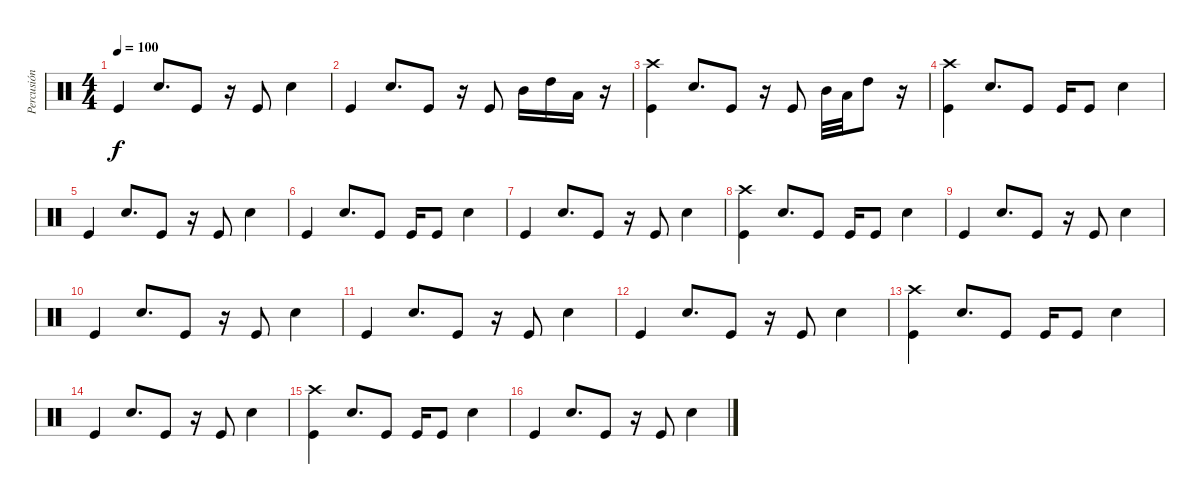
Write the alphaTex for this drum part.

\track ("Percusión" "Percusión") {instrument percussion}
\staff {score}
\articulation defaults
\ts (4 4)
\tempo 100
\clef neutral
\ks c "Kick (hit)".4{dy f} "Snare (hit) 2".8{d} "Kick (hit)".8
r.16 "Kick (hit)".8 "Snare (hit) 2".4 |
"Kick (hit)".4 "Snare (hit) 2".8{d} "Kick (hit)".8 r.16 "Kick (hit)".8 "Mid Tom (hit)".16 "High Tom (hit)".16 "Low Floor Tom (hit)".16 r.16 |
("Kick (hit)" "Crash high (hit)").4 "Snare (hit) 2".8{d} "Kick (hit)".8 r.16 "Kick (hit)".8 "Mid Tom (hit)".32 "Low Tom (hit)".32 "High Tom (hit)".8 r.16 |
("Crash high (hit)" "Kick (hit)").4 "Snare (hit) 2".8{d} "Kick (hit)".8 "Kick (hit)".16 "Kick (hit)".8 "Snare (hit) 2".4 |
"Kick (hit)".4 "Snare (hit) 2".8{d} "Kick (hit)".8 r.16 "Kick (hit)".8 "Snare (hit) 2".4 |
"Kick (hit)".4 "Snare (hit) 2".8{d} "Kick (hit)".8 "Kick (hit)".16 "Kick (hit)".8 "Snare (hit) 2".4 |
"Kick (hit)".4 "Snare (hit) 2".8{d} "Kick (hit)".8 r.16 "Kick (hit)".8 "Snare (hit) 2".4 |
("Crash high (hit)" "Kick (hit)").4 "Snare (hit) 2".8{d} "Kick (hit)".8 "Kick (hit)".16 "Kick (hit)".8 "Snare (hit) 2".4 |
"Kick (hit)".4 "Snare (hit) 2".8{d} "Kick (hit)".8 r.16 "Kick (hit)".8 "Snare (hit) 2".4 |
"Kick (hit)".4 "Snare (hit) 2".8{d} "Kick (hit)".8 r.16 "Kick (hit)".8 "Snare (hit) 2".4 |
"Kick (hit)".4 "Snare (hit) 2".8{d} "Kick (hit)".8 r.16 "Kick (hit)".8 "Snare (hit) 2".4 |
"Kick (hit)".4 "Snare (hit) 2".8{d} "Kick (hit)".8 r.16 "Kick (hit)".8 "Snare (hit) 2".4 |
("Crash high (hit)" "Kick (hit)").4 "Snare (hit) 2".8{d} "Kick (hit)".8 "Kick (hit)".16 "Kick (hit)".8 "Snare (hit) 2".4 |
"Kick (hit)".4 "Snare (hit) 2".8{d} "Kick (hit)".8 r.16 "Kick (hit)".8 "Snare (hit) 2".4 |
("Crash high (hit)" "Kick (hit)").4 "Snare (hit) 2".8{d} "Kick (hit)".8 "Kick (hit)".16 "Kick (hit)".8 "Snare (hit) 2".4 |
"Kick (hit)".4 "Snare (hit) 2".8{d} "Kick (hit)".8 r.16 "Kick (hit)".8 "Snare (hit) 2".4
